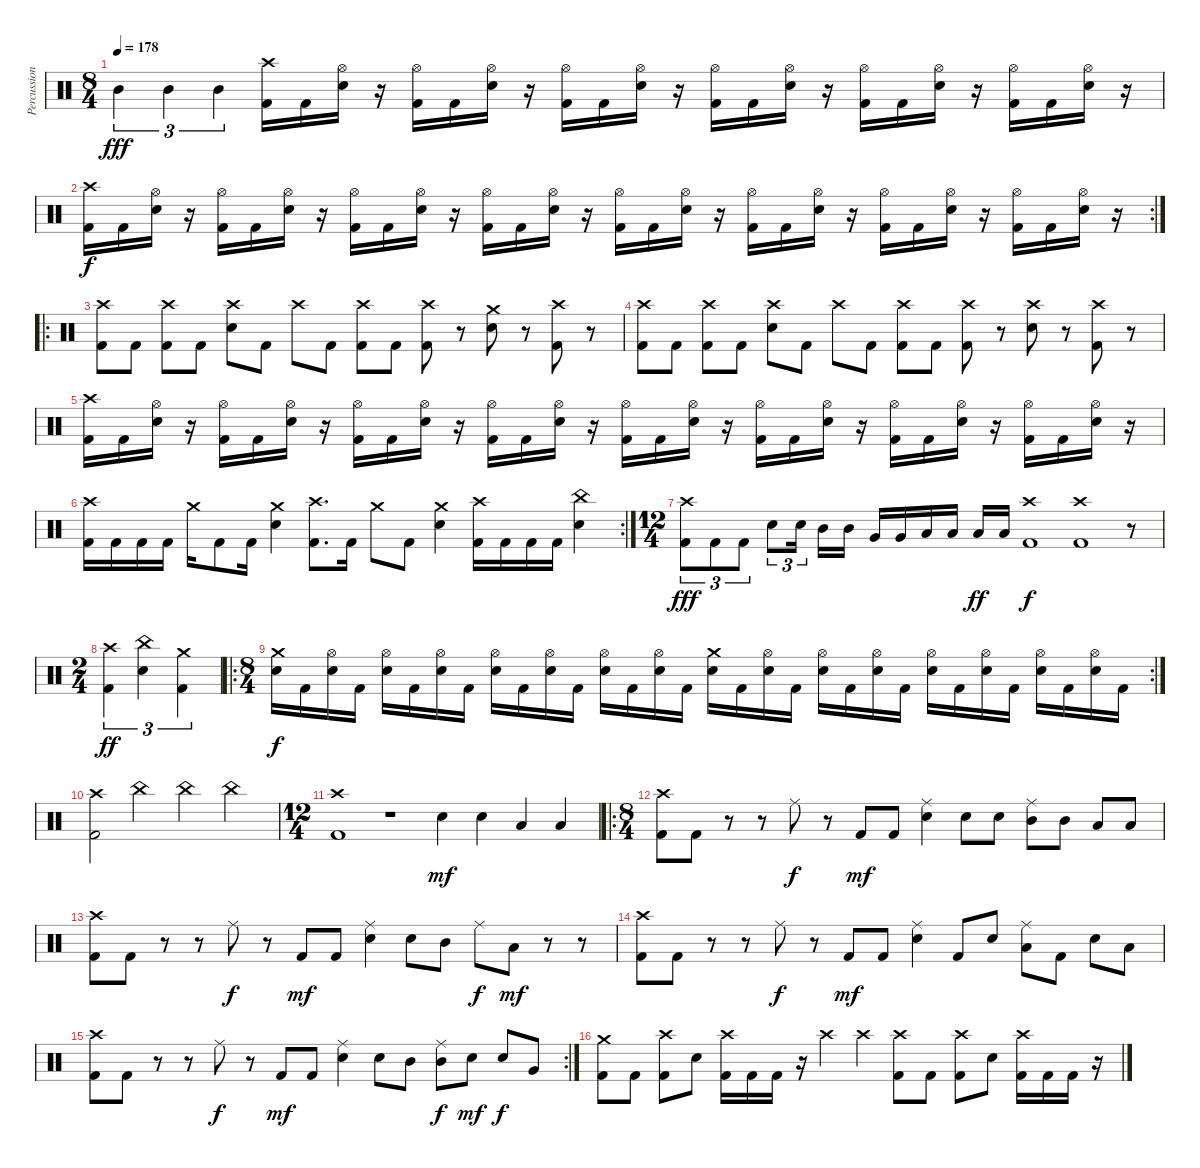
\track ("Percussion" "Percussion") {instrument percussion}
\staff {score}
\articulation defaults
\ts (8 4)
\tempo 178
\clef neutral
\ks c "Mid Tom (hit)".4{tu (3 2) dy fff} "Mid Tom (hit)".4{tu (3 2)} "Mid Tom (hit)".4{tu (3 2)}
("Crash high (hit)" "Kick (hit) 2").16 "Kick (hit) 2".16 ("Hi-Hat (open)" "Electric Snare (hit)").16 r.16 ("Hi-Hat (open)" "Kick (hit) 2").16 "Kick (hit) 2".16 ("Hi-Hat (open)" "Electric Snare (hit)").16 r.16 ("Hi-Hat (open)" "Kick (hit) 2").16 "Kick (hit) 2".16 ("Hi-Hat (open)" "Electric Snare (hit)").16 r.16 ("Hi-Hat (open)" "Kick (hit) 2").16 "Kick (hit) 2".16 ("Hi-Hat (open)" "Electric Snare (hit)").16 r.16 ("Hi-Hat (open)" "Kick (hit) 2").16 "Kick (hit) 2".16 ("Hi-Hat (open)" "Electric Snare (hit)").16 r.16 ("Hi-Hat (open)" "Kick (hit) 2").16 "Kick (hit) 2".16 ("Hi-Hat (open)" "Electric Snare (hit)").16 r.16 |
\rc 2
("Crash high (hit)" "Kick (hit) 2").16{dy f} "Kick (hit) 2".16 ("Hi-Hat (open)" "Electric Snare (hit)").16 r.16 ("Hi-Hat (open)" "Kick (hit) 2").16 "Kick (hit) 2".16 ("Hi-Hat (open)" "Electric Snare (hit)").16 r.16 ("Hi-Hat (open)" "Kick (hit) 2").16 "Kick (hit) 2".16 ("Hi-Hat (open)" "Electric Snare (hit)").16 r.16 ("Hi-Hat (open)" "Kick (hit) 2").16 "Kick (hit) 2".16 ("Hi-Hat (open)" "Electric Snare (hit)").16 r.16 ("Hi-Hat (open)" "Kick (hit) 2").16 "Kick (hit) 2".16 ("Hi-Hat (open)" "Electric Snare (hit)").16 r.16 ("Hi-Hat (open)" "Kick (hit) 2").16 "Kick (hit) 2".16 ("Hi-Hat (open)" "Electric Snare (hit)").16 r.16 ("Hi-Hat (open)" "Kick (hit) 2").16 "Kick (hit) 2".16 ("Hi-Hat (open)" "Electric Snare (hit)").16 r.16 ("Hi-Hat (open)" "Kick (hit) 2").16 "Kick (hit) 2".16 ("Hi-Hat (open)" "Electric Snare (hit)").16 r.16 |
\ro
("Crash high (hit)" "Kick (hit) 2").8 "Kick (hit) 2".8 ("Crash high (hit)" "Kick (hit) 2").8 "Kick (hit) 2".8 ("Crash high (hit)" "Electric Snare (hit)").8 "Kick (hit) 2".8 "Crash high (hit)".8 "Kick (hit) 2".8 ("Crash high (hit)" "Kick (hit) 2").8 "Kick (hit) 2".8 ("Crash high (hit)" "Kick (hit) 2").8 r.8 ("Crash medium (hit)" "Electric Snare (hit)").8 r.8 ("Crash high (hit)" "Kick (hit) 2").8 r.8 |
("Crash high (hit)" "Kick (hit) 2").8 "Kick (hit) 2".8 ("Crash high (hit)" "Kick (hit) 2").8 "Kick (hit) 2".8 ("Crash high (hit)" "Electric Snare (hit)").8 "Kick (hit) 2".8 "Crash high (hit)".8 "Kick (hit) 2".8 ("Crash high (hit)" "Kick (hit) 2").8 "Kick (hit) 2".8 ("Crash high (hit)" "Kick (hit) 2").8 r.8 ("Crash high (hit)" "Electric Snare (hit)").8 r.8 ("Crash high (hit)" "Kick (hit) 2").8 r.8 |
("Crash high (hit)" "Kick (hit) 2").16 "Kick (hit) 2".16 ("Hi-Hat (open)" "Electric Snare (hit)").16 r.16 ("Hi-Hat (open)" "Kick (hit) 2").16 "Kick (hit) 2".16 ("Hi-Hat (open)" "Electric Snare (hit)").16 r.16 ("Hi-Hat (open)" "Kick (hit) 2").16 "Kick (hit) 2".16 ("Hi-Hat (open)" "Electric Snare (hit)").16 r.16 ("Hi-Hat (open)" "Kick (hit) 2").16 "Kick (hit) 2".16 ("Hi-Hat (open)" "Electric Snare (hit)").16 r.16 ("Hi-Hat (open)" "Kick (hit) 2").16 "Kick (hit) 2".16 ("Hi-Hat (open)" "Electric Snare (hit)").16 r.16 ("Hi-Hat (open)" "Kick (hit) 2").16 "Kick (hit) 2".16 ("Hi-Hat (open)" "Electric Snare (hit)").16 r.16 ("Hi-Hat (open)" "Kick (hit) 2").16 "Kick (hit) 2".16 ("Hi-Hat (open)" "Electric Snare (hit)").16 r.16 ("Hi-Hat (open)" "Kick (hit) 2").16 "Kick (hit) 2".16 ("Hi-Hat (open)" "Electric Snare (hit)").16 r.16 |
\rc 2
("Crash high (hit)" "Kick (hit) 2").16 "Kick (hit) 2".16 "Kick (hit) 2".16 "Kick (hit) 2".16 "Crash medium (hit)".16 "Kick (hit) 2".8 "Kick (hit) 2".16 ("Crash medium (hit)" "Electric Snare (hit)").4 ("Crash high (hit)" "Kick (hit) 2").8{d} "Kick (hit) 2".16 "Crash medium (hit)".8 "Kick (hit) 2".8 ("Crash medium (hit)" "Electric Snare (hit)").4 ("Crash high (hit)" "Kick (hit) 2").16 "Kick (hit) 2".16 "Kick (hit) 2".16 "Kick (hit) 2".16 ("China (hit)" "Electric Snare (hit)").4 |
\ts (12 4)
("Crash high (hit)" "Kick (hit) 2").8{tu (3 2) dy fff} "Kick (hit) 2".8{tu (3 2)} "Kick (hit) 2".8{tu (3 2)} "Electric Snare (hit)".8{tu (3 2)} "Electric Snare (hit)".16{tu (3 2)} "Mid Tom (hit)".16 "Mid Tom (hit)".16 "Very Low Tom (hit)".16 "Very Low Tom (hit)".16 "Low Floor Tom (hit)".16 "Low Floor Tom (hit)".16 "Low Floor Tom (hit)".16{dy ff} "Low Floor Tom (hit)".16 ("Crash high (hit)" "Kick (hit) 2").1{dy f} ("Crash high (hit)" "Kick (hit) 2").1 r.8 |
\ts (2 4)
("Crash high (hit)" "Kick (hit) 2").4{tu (3 2) dy ff} ("China (hit)" "Electric Snare (hit)").4{tu (3 2)} ("Crash medium (hit)" "Kick (hit) 2").4{tu (3 2)} |
\ro
\rc 2
\ts (8 4)
("Crash medium (hit)" "Electric Snare (hit)").16{dy f} "Kick (hit) 2".16 ("Hi-Hat (open)" "Electric Snare (hit)").16 "Kick (hit) 2".16 ("Hi-Hat (open)" "Electric Snare (hit)").16 "Kick (hit) 2".16 ("Hi-Hat (open)" "Electric Snare (hit)").16 "Kick (hit) 2".16 ("Hi-Hat (open)" "Electric Snare (hit)").16 "Kick (hit) 2".16 ("Hi-Hat (open)" "Electric Snare (hit)").16 "Kick (hit) 2".16 ("Hi-Hat (open)" "Electric Snare (hit)").16 "Kick (hit) 2".16 ("Hi-Hat (open)" "Electric Snare (hit)").16 "Kick (hit) 2".16 ("Crash medium (hit)" "Electric Snare (hit)").16 "Kick (hit) 2".16 ("Hi-Hat (open)" "Electric Snare (hit)").16 "Kick (hit) 2".16 ("Hi-Hat (open)" "Electric Snare (hit)").16 "Kick (hit) 2".16 ("Hi-Hat (open)" "Electric Snare (hit)").16 "Kick (hit) 2".16 ("Hi-Hat (open)" "Electric Snare (hit)").16 "Kick (hit) 2".16 ("Hi-Hat (open)" "Electric Snare (hit)").16 "Kick (hit) 2".16 ("Hi-Hat (open)" "Electric Snare (hit)").16 "Kick (hit) 2".16 ("Hi-Hat (open)" "Electric Snare (hit)").16 "Kick (hit) 2".16 |
("Crash high (hit)" "Kick (hit) 2").2 "China (hit)".2 "China (hit)".2 "China (hit)".2 |
\ts (12 4)
("Crash high (hit)" "Kick (hit) 2").1 r.1 "Electric Snare (hit)".4{dy mf} "Electric Snare (hit)".4 "Low Floor Tom (hit)".4 "Low Floor Tom (hit)".4 |
\ro
\ts (8 4)
("Crash high (hit)" "Kick (hit) 2").8 "Kick (hit) 2".8 r.8 r.8 "Ride (middle)".8{dy f} r.8 "Kick (hit) 2".8{dy mf} "Kick (hit) 2".8 ("Ride (middle)" "Electric Snare (hit)").4 "Electric Snare (hit)".8 "Electric Snare (hit)".8 ("Ride (middle)" "Mid Tom (hit)").8 "Mid Tom (hit)".8 "Low Floor Tom (hit)".8 "Low Floor Tom (hit)".8 |
("Crash high (hit)" "Kick (hit) 2").8 "Kick (hit) 2".8 r.8 r.8 "Ride (middle)".8{dy f} r.8 "Kick (hit) 2".8{dy mf} "Kick (hit) 2".8 ("Ride (middle)" "Electric Snare (hit)").4 "Electric Snare (hit)".8 "Mid Tom (hit)".8 "Ride (middle)".8{dy f} "Low Floor Tom (hit)".8{dy mf} r.8 r.8 |
("Crash high (hit)" "Kick (hit) 2").8 "Kick (hit) 2".8 r.8 r.8 "Ride (middle)".8{dy f} r.8 "Kick (hit) 2".8{dy mf} "Kick (hit) 2".8 ("Ride (middle)" "Electric Snare (hit)").4 "Kick (hit) 2".8 "Electric Snare (hit)".8 ("Ride (middle)" "Low Floor Tom (hit)").8 "Kick (hit) 2".8 "Electric Snare (hit)".8 "Low Floor Tom (hit)".8 |
\rc 2
("Crash high (hit)" "Kick (hit) 2").8 "Kick (hit) 2".8 r.8 r.8 "Ride (middle)".8{dy f} r.8 "Kick (hit) 2".8{dy mf} "Kick (hit) 2".8 ("Ride (middle)" "Electric Snare (hit)").4 "Electric Snare (hit)".8 "Mid Tom (hit)".8 ("Ride (middle)" "Mid Tom (hit)").8{dy f} "Electric Snare (hit)".8{dy mf} "Electric Snare (hit)".8{dy f} "Very Low Tom (hit)".8 |
("Crash medium (hit)" "Kick (hit) 2").8 "Kick (hit) 2".8 ("Crash high (hit)" "Kick (hit) 2").8 "Electric Snare (hit)".8 ("Crash high (hit)" "Kick (hit) 2").16 "Kick (hit) 2".16 "Kick (hit) 2".16 r.16 "Crash high (hit)".4 "Crash high (hit)".4 ("Crash high (hit)" "Kick (hit) 2").8 "Kick (hit) 2".8 ("Crash high (hit)" "Kick (hit) 2").8 "Electric Snare (hit)".8 ("Crash high (hit)" "Kick (hit) 2").16 "Kick (hit) 2".16 "Kick (hit) 2".16 r.16
